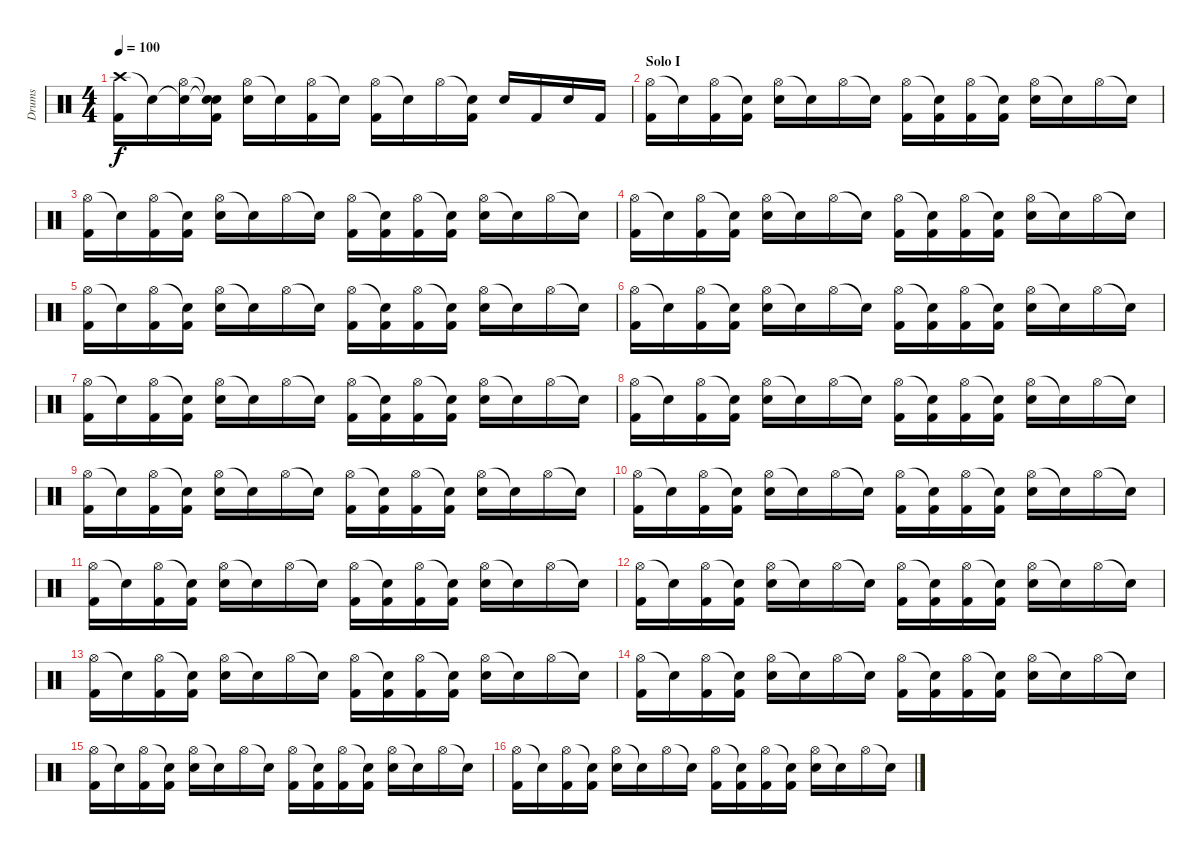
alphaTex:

\track ("Drums" "Drums") {instrument percussion}
\staff {score}
\articulation defaults
\ts (4 4)
\tempo 100
\clef neutral
\ks c
("Crash high (hit)" "Kick (hit) 2").16{dy f} "Snare (hit)"{t}.16 ("Snare (hit)"{t} "Hi-Hat (open)").16 ("Snare (hit)"{t} "Snare (hit)"{t} "Kick (hit) 2").16 ("Hi-Hat (open)" "Electric Snare (hit)").16 "Snare (hit)"{t}.16 ("Hi-Hat (open)" "Kick (hit) 2").16 "Snare (hit)"{t}.16 ("Hi-Hat (open)" "Kick (hit) 2").16 "Snare (hit)"{t}.16 "Hi-Hat (open)".16 ("Snare (hit)"{t} "Kick (hit) 2").16 "Electric Snare (hit)".16 "Kick (hit) 2".16 "Electric Snare (hit)".16 "Kick (hit) 2".16 |
\section ("" "Solo I")
("Hi-Hat (open)" "Kick (hit) 2").16 "Snare (hit)"{t}.16 ("Hi-Hat (open)" "Kick (hit) 2").16 ("Snare (hit)"{t} "Kick (hit) 2").16 ("Hi-Hat (open)" "Electric Snare (hit)").16 "Snare (hit)"{t}.16 "Hi-Hat (open)".16 "Snare (hit)"{t}.16 ("Hi-Hat (open)" "Kick (hit) 2").16 ("Snare (hit)"{t} "Kick (hit) 2").16 ("Hi-Hat (open)" "Kick (hit) 2").16 ("Snare (hit)"{t} "Kick (hit) 2").16 ("Hi-Hat (open)" "Electric Snare (hit)").16 "Snare (hit)"{t}.16 "Hi-Hat (open)".16 "Snare (hit)"{t}.16 |
("Hi-Hat (open)" "Kick (hit) 2").16 "Snare (hit)"{t}.16 ("Hi-Hat (open)" "Kick (hit) 2").16 ("Snare (hit)"{t} "Kick (hit) 2").16 ("Hi-Hat (open)" "Electric Snare (hit)").16 "Snare (hit)"{t}.16 "Hi-Hat (open)".16 "Snare (hit)"{t}.16 ("Hi-Hat (open)" "Kick (hit) 2").16 ("Snare (hit)"{t} "Kick (hit) 2").16 ("Hi-Hat (open)" "Kick (hit) 2").16 ("Snare (hit)"{t} "Kick (hit) 2").16 ("Hi-Hat (open)" "Electric Snare (hit)").16 "Snare (hit)"{t}.16 "Hi-Hat (open)".16 "Snare (hit)"{t}.16 |
("Hi-Hat (open)" "Kick (hit) 2").16 "Snare (hit)"{t}.16 ("Hi-Hat (open)" "Kick (hit) 2").16 ("Snare (hit)"{t} "Kick (hit) 2").16 ("Hi-Hat (open)" "Electric Snare (hit)").16 "Snare (hit)"{t}.16 "Hi-Hat (open)".16 "Snare (hit)"{t}.16 ("Hi-Hat (open)" "Kick (hit) 2").16 ("Snare (hit)"{t} "Kick (hit) 2").16 ("Hi-Hat (open)" "Kick (hit) 2").16 ("Snare (hit)"{t} "Kick (hit) 2").16 ("Hi-Hat (open)" "Electric Snare (hit)").16 "Snare (hit)"{t}.16 "Hi-Hat (open)".16 "Snare (hit)"{t}.16 |
("Hi-Hat (open)" "Kick (hit) 2").16 "Snare (hit)"{t}.16 ("Hi-Hat (open)" "Kick (hit) 2").16 ("Snare (hit)"{t} "Kick (hit) 2").16 ("Hi-Hat (open)" "Electric Snare (hit)").16 "Snare (hit)"{t}.16 "Hi-Hat (open)".16 "Snare (hit)"{t}.16 ("Hi-Hat (open)" "Kick (hit) 2").16 ("Snare (hit)"{t} "Kick (hit) 2").16 ("Hi-Hat (open)" "Kick (hit) 2").16 ("Snare (hit)"{t} "Kick (hit) 2").16 ("Hi-Hat (open)" "Electric Snare (hit)").16 "Snare (hit)"{t}.16 "Hi-Hat (open)".16 "Snare (hit)"{t}.16 |
("Hi-Hat (open)" "Kick (hit) 2").16 "Snare (hit)"{t}.16 ("Hi-Hat (open)" "Kick (hit) 2").16 ("Snare (hit)"{t} "Kick (hit) 2").16 ("Hi-Hat (open)" "Electric Snare (hit)").16 "Snare (hit)"{t}.16 "Hi-Hat (open)".16 "Snare (hit)"{t}.16 ("Hi-Hat (open)" "Kick (hit) 2").16 ("Snare (hit)"{t} "Kick (hit) 2").16 ("Hi-Hat (open)" "Kick (hit) 2").16 ("Snare (hit)"{t} "Kick (hit) 2").16 ("Hi-Hat (open)" "Electric Snare (hit)").16 "Snare (hit)"{t}.16 "Hi-Hat (open)".16 "Snare (hit)"{t}.16 |
("Hi-Hat (open)" "Kick (hit) 2").16 "Snare (hit)"{t}.16 ("Hi-Hat (open)" "Kick (hit) 2").16 ("Snare (hit)"{t} "Kick (hit) 2").16 ("Hi-Hat (open)" "Electric Snare (hit)").16 "Snare (hit)"{t}.16 "Hi-Hat (open)".16 "Snare (hit)"{t}.16 ("Hi-Hat (open)" "Kick (hit) 2").16 ("Snare (hit)"{t} "Kick (hit) 2").16 ("Hi-Hat (open)" "Kick (hit) 2").16 ("Snare (hit)"{t} "Kick (hit) 2").16 ("Hi-Hat (open)" "Electric Snare (hit)").16 "Snare (hit)"{t}.16 "Hi-Hat (open)".16 "Snare (hit)"{t}.16 |
("Hi-Hat (open)" "Kick (hit) 2").16 "Snare (hit)"{t}.16 ("Hi-Hat (open)" "Kick (hit) 2").16 ("Snare (hit)"{t} "Kick (hit) 2").16 ("Hi-Hat (open)" "Electric Snare (hit)").16 "Snare (hit)"{t}.16 "Hi-Hat (open)".16 "Snare (hit)"{t}.16 ("Hi-Hat (open)" "Kick (hit) 2").16 ("Snare (hit)"{t} "Kick (hit) 2").16 ("Hi-Hat (open)" "Kick (hit) 2").16 ("Snare (hit)"{t} "Kick (hit) 2").16 ("Hi-Hat (open)" "Electric Snare (hit)").16 "Snare (hit)"{t}.16 "Hi-Hat (open)".16 "Snare (hit)"{t}.16 |
("Hi-Hat (open)" "Kick (hit) 2").16 "Snare (hit)"{t}.16 ("Hi-Hat (open)" "Kick (hit) 2").16 ("Snare (hit)"{t} "Kick (hit) 2").16 ("Hi-Hat (open)" "Electric Snare (hit)").16 "Snare (hit)"{t}.16 "Hi-Hat (open)".16 "Snare (hit)"{t}.16 ("Hi-Hat (open)" "Kick (hit) 2").16 ("Snare (hit)"{t} "Kick (hit) 2").16 ("Hi-Hat (open)" "Kick (hit) 2").16 ("Snare (hit)"{t} "Kick (hit) 2").16 ("Hi-Hat (open)" "Electric Snare (hit)").16 "Snare (hit)"{t}.16 "Hi-Hat (open)".16 "Snare (hit)"{t}.16 |
("Hi-Hat (open)" "Kick (hit) 2").16 "Snare (hit)"{t}.16 ("Hi-Hat (open)" "Kick (hit) 2").16 ("Snare (hit)"{t} "Kick (hit) 2").16 ("Hi-Hat (open)" "Electric Snare (hit)").16 "Snare (hit)"{t}.16 "Hi-Hat (open)".16 "Snare (hit)"{t}.16 ("Hi-Hat (open)" "Kick (hit) 2").16 ("Snare (hit)"{t} "Kick (hit) 2").16 ("Hi-Hat (open)" "Kick (hit) 2").16 ("Snare (hit)"{t} "Kick (hit) 2").16 ("Hi-Hat (open)" "Electric Snare (hit)").16 "Snare (hit)"{t}.16 "Hi-Hat (open)".16 "Snare (hit)"{t}.16 |
("Hi-Hat (open)" "Kick (hit) 2").16 "Snare (hit)"{t}.16 ("Hi-Hat (open)" "Kick (hit) 2").16 ("Snare (hit)"{t} "Kick (hit) 2").16 ("Hi-Hat (open)" "Electric Snare (hit)").16 "Snare (hit)"{t}.16 "Hi-Hat (open)".16 "Snare (hit)"{t}.16 ("Hi-Hat (open)" "Kick (hit) 2").16 ("Snare (hit)"{t} "Kick (hit) 2").16 ("Hi-Hat (open)" "Kick (hit) 2").16 ("Snare (hit)"{t} "Kick (hit) 2").16 ("Hi-Hat (open)" "Electric Snare (hit)").16 "Snare (hit)"{t}.16 "Hi-Hat (open)".16 "Snare (hit)"{t}.16 |
("Hi-Hat (open)" "Kick (hit) 2").16 "Snare (hit)"{t}.16 ("Hi-Hat (open)" "Kick (hit) 2").16 ("Snare (hit)"{t} "Kick (hit) 2").16 ("Hi-Hat (open)" "Electric Snare (hit)").16 "Snare (hit)"{t}.16 "Hi-Hat (open)".16 "Snare (hit)"{t}.16 ("Hi-Hat (open)" "Kick (hit) 2").16 ("Snare (hit)"{t} "Kick (hit) 2").16 ("Hi-Hat (open)" "Kick (hit) 2").16 ("Snare (hit)"{t} "Kick (hit) 2").16 ("Hi-Hat (open)" "Electric Snare (hit)").16 "Snare (hit)"{t}.16 "Hi-Hat (open)".16 "Snare (hit)"{t}.16 |
("Hi-Hat (open)" "Kick (hit) 2").16 "Snare (hit)"{t}.16 ("Hi-Hat (open)" "Kick (hit) 2").16 ("Snare (hit)"{t} "Kick (hit) 2").16 ("Hi-Hat (open)" "Electric Snare (hit)").16 "Snare (hit)"{t}.16 "Hi-Hat (open)".16 "Snare (hit)"{t}.16 ("Hi-Hat (open)" "Kick (hit) 2").16 ("Snare (hit)"{t} "Kick (hit) 2").16 ("Hi-Hat (open)" "Kick (hit) 2").16 ("Snare (hit)"{t} "Kick (hit) 2").16 ("Hi-Hat (open)" "Electric Snare (hit)").16 "Snare (hit)"{t}.16 "Hi-Hat (open)".16 "Snare (hit)"{t}.16 |
("Hi-Hat (open)" "Kick (hit) 2").16 "Snare (hit)"{t}.16 ("Hi-Hat (open)" "Kick (hit) 2").16 ("Snare (hit)"{t} "Kick (hit) 2").16 ("Hi-Hat (open)" "Electric Snare (hit)").16 "Snare (hit)"{t}.16 "Hi-Hat (open)".16 "Snare (hit)"{t}.16 ("Hi-Hat (open)" "Kick (hit) 2").16 ("Snare (hit)"{t} "Kick (hit) 2").16 ("Hi-Hat (open)" "Kick (hit) 2").16 ("Snare (hit)"{t} "Kick (hit) 2").16 ("Hi-Hat (open)" "Electric Snare (hit)").16 "Snare (hit)"{t}.16 "Hi-Hat (open)".16 "Snare (hit)"{t}.16 |
("Hi-Hat (open)" "Kick (hit) 2").16 "Snare (hit)"{t}.16 ("Hi-Hat (open)" "Kick (hit) 2").16 ("Snare (hit)"{t} "Kick (hit) 2").16 ("Hi-Hat (open)" "Electric Snare (hit)").16 "Snare (hit)"{t}.16 "Hi-Hat (open)".16 "Snare (hit)"{t}.16 ("Hi-Hat (open)" "Kick (hit) 2").16 ("Snare (hit)"{t} "Kick (hit) 2").16 ("Hi-Hat (open)" "Kick (hit) 2").16 ("Snare (hit)"{t} "Kick (hit) 2").16 ("Hi-Hat (open)" "Electric Snare (hit)").16 "Snare (hit)"{t}.16 "Hi-Hat (open)".16 "Snare (hit)"{t}.16 |
("Hi-Hat (open)" "Kick (hit) 2").16 "Snare (hit)"{t}.16 ("Hi-Hat (open)" "Kick (hit) 2").16 ("Snare (hit)"{t} "Kick (hit) 2").16 ("Hi-Hat (open)" "Electric Snare (hit)").16 "Snare (hit)"{t}.16 "Hi-Hat (open)".16 "Snare (hit)"{t}.16 ("Hi-Hat (open)" "Kick (hit) 2").16 ("Snare (hit)"{t} "Kick (hit) 2").16 ("Hi-Hat (open)" "Kick (hit) 2").16 ("Snare (hit)"{t} "Kick (hit) 2").16 ("Hi-Hat (open)" "Electric Snare (hit)").16 "Snare (hit)"{t}.16 "Hi-Hat (open)".16 "Snare (hit)"{t}.16
